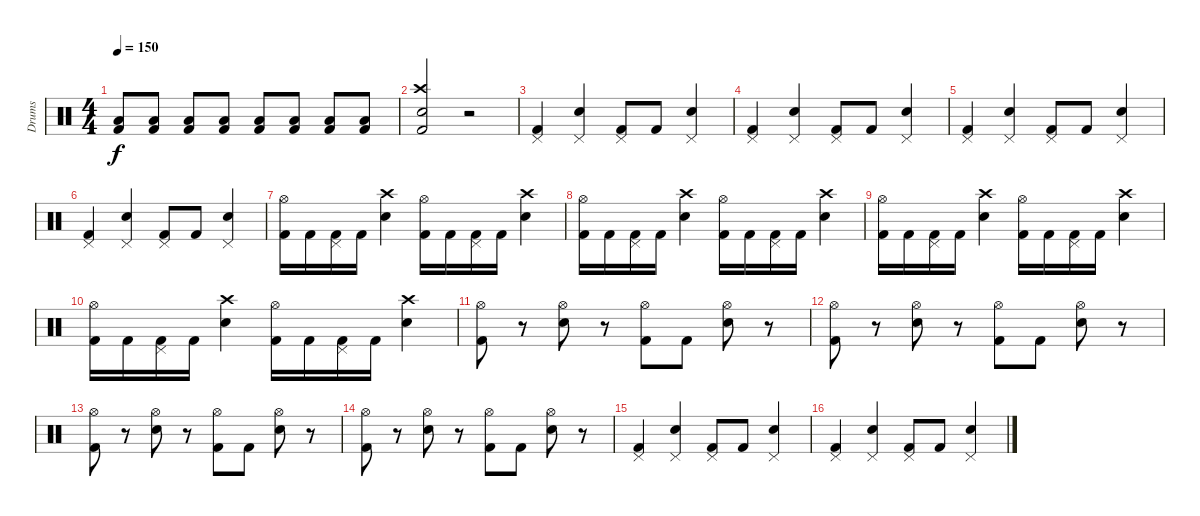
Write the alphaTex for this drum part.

\track ("Drums" "Drums") {instrument percussion}
\staff {score}
\articulation defaults
\ts (4 4)
\tempo 150
\clef neutral
\ks c
("Low Tom (hit)" "Kick (hit) 2").8{dy f} ("Low Tom (hit)" "Kick (hit) 2").8 ("Low Tom (hit)" "Kick (hit) 2").8 ("Low Tom (hit)" "Kick (hit) 2").8 ("Low Tom (hit)" "Kick (hit) 2").8 ("Low Tom (hit)" "Kick (hit) 2").8 ("Low Tom (hit)" "Kick (hit) 2").8 ("Low Tom (hit)" "Kick (hit) 2").8 |
("Crash high (hit)" "Snare (hit) 2" "Kick (hit) 2").2 r.2 |
("Pedal Hi-Hat (hit)" "Kick (hit) 2").4 ("Pedal Hi-Hat (hit)" "Snare (hit) 2").4 ("Pedal Hi-Hat (hit)" "Kick (hit) 2").8 "Kick (hit) 2".8 ("Pedal Hi-Hat (hit)" "Snare (hit) 2").4 |
("Pedal Hi-Hat (hit)" "Kick (hit) 2").4 ("Pedal Hi-Hat (hit)" "Snare (hit) 2").4 ("Pedal Hi-Hat (hit)" "Kick (hit) 2").8 "Kick (hit) 2".8 ("Pedal Hi-Hat (hit)" "Snare (hit) 2").4 |
("Pedal Hi-Hat (hit)" "Kick (hit) 2").4 ("Pedal Hi-Hat (hit)" "Snare (hit) 2").4 ("Pedal Hi-Hat (hit)" "Kick (hit) 2").8 "Kick (hit) 2".8 ("Pedal Hi-Hat (hit)" "Snare (hit) 2").4 |
("Pedal Hi-Hat (hit)" "Kick (hit) 2").4 ("Pedal Hi-Hat (hit)" "Snare (hit) 2").4 ("Pedal Hi-Hat (hit)" "Kick (hit) 2").8 "Kick (hit) 2".8 ("Pedal Hi-Hat (hit)" "Snare (hit) 2").4 |
("Hi-Hat (open)" "Kick (hit) 2").16 "Kick (hit) 2".16 ("Pedal Hi-Hat (hit)" "Kick (hit) 2").16 "Kick (hit) 2".16 ("Crash high (hit)" "Snare (hit) 2").4 ("Hi-Hat (open)" "Kick (hit) 2").16 "Kick (hit) 2".16 ("Pedal Hi-Hat (hit)" "Kick (hit) 2").16 "Kick (hit) 2".16 ("Crash high (hit)" "Snare (hit) 2").4 |
("Hi-Hat (open)" "Kick (hit) 2").16 "Kick (hit) 2".16 ("Pedal Hi-Hat (hit)" "Kick (hit) 2").16 "Kick (hit) 2".16 ("Crash high (hit)" "Snare (hit) 2").4 ("Hi-Hat (open)" "Kick (hit) 2").16 "Kick (hit) 2".16 ("Pedal Hi-Hat (hit)" "Kick (hit) 2").16 "Kick (hit) 2".16 ("Crash high (hit)" "Snare (hit) 2").4 |
("Hi-Hat (open)" "Kick (hit) 2").16 "Kick (hit) 2".16 ("Pedal Hi-Hat (hit)" "Kick (hit) 2").16 "Kick (hit) 2".16 ("Crash high (hit)" "Snare (hit) 2").4 ("Hi-Hat (open)" "Kick (hit) 2").16 "Kick (hit) 2".16 ("Pedal Hi-Hat (hit)" "Kick (hit) 2").16 "Kick (hit) 2".16 ("Crash high (hit)" "Snare (hit) 2").4 |
("Hi-Hat (open)" "Kick (hit) 2").16 "Kick (hit) 2".16 ("Pedal Hi-Hat (hit)" "Kick (hit) 2").16 "Kick (hit) 2".16 ("Crash high (hit)" "Snare (hit) 2").4 ("Hi-Hat (open)" "Kick (hit) 2").16 "Kick (hit) 2".16 ("Pedal Hi-Hat (hit)" "Kick (hit) 2").16 "Kick (hit) 2".16 ("Crash high (hit)" "Snare (hit) 2").4 |
("Hi-Hat (open)" "Kick (hit) 2").8 r.8 ("Hi-Hat (open)" "Snare (hit) 2").8 r.8 ("Hi-Hat (open)" "Kick (hit) 2").8 "Kick (hit) 2".8 ("Hi-Hat (open)" "Snare (hit) 2").8 r.8 |
("Hi-Hat (open)" "Kick (hit) 2").8 r.8 ("Hi-Hat (open)" "Snare (hit) 2").8 r.8 ("Hi-Hat (open)" "Kick (hit) 2").8 "Kick (hit) 2".8 ("Hi-Hat (open)" "Snare (hit) 2").8 r.8 |
("Hi-Hat (open)" "Kick (hit) 2").8 r.8 ("Hi-Hat (open)" "Snare (hit) 2").8 r.8 ("Hi-Hat (open)" "Kick (hit) 2").8 "Kick (hit) 2".8 ("Hi-Hat (open)" "Snare (hit) 2").8 r.8 |
("Hi-Hat (open)" "Kick (hit) 2").8 r.8 ("Hi-Hat (open)" "Snare (hit) 2").8 r.8 ("Hi-Hat (open)" "Kick (hit) 2").8 "Kick (hit) 2".8 ("Hi-Hat (open)" "Snare (hit) 2").8 r.8 |
("Pedal Hi-Hat (hit)" "Kick (hit) 2").4 ("Pedal Hi-Hat (hit)" "Snare (hit) 2").4 ("Pedal Hi-Hat (hit)" "Kick (hit) 2").8 "Kick (hit) 2".8 ("Pedal Hi-Hat (hit)" "Snare (hit) 2").4 |
("Pedal Hi-Hat (hit)" "Kick (hit) 2").4 ("Pedal Hi-Hat (hit)" "Snare (hit) 2").4 ("Pedal Hi-Hat (hit)" "Kick (hit) 2").8 "Kick (hit) 2".8 ("Pedal Hi-Hat (hit)" "Snare (hit) 2").4
